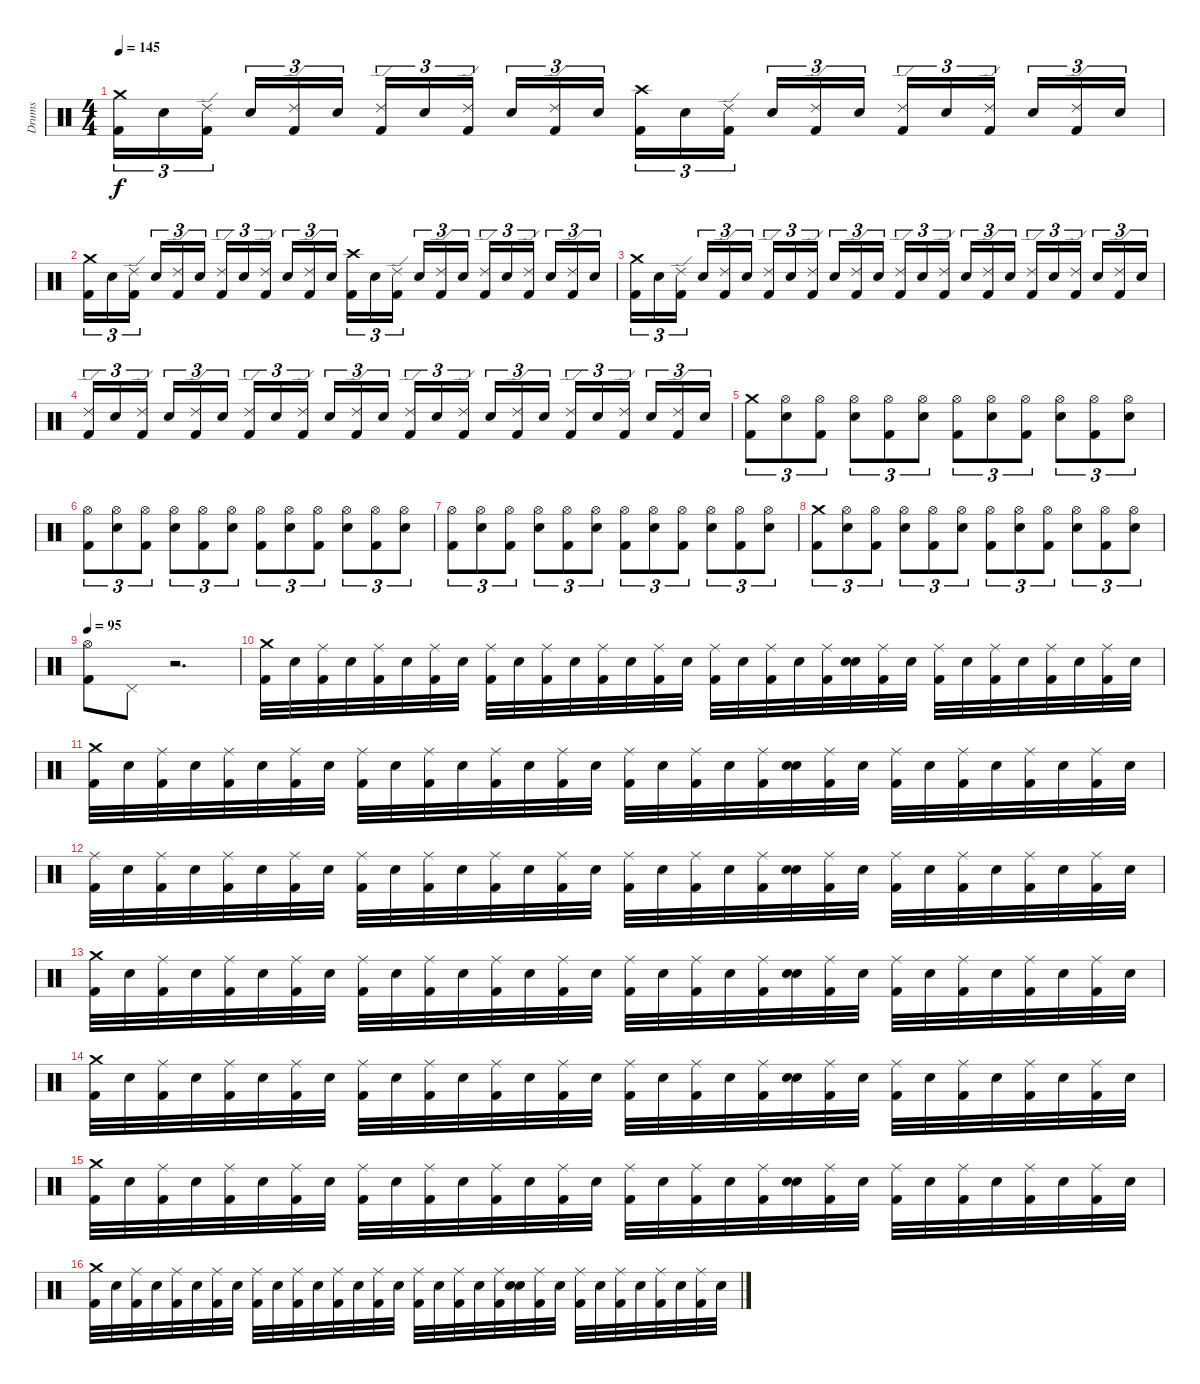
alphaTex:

\track ("Drums" "Drums") {instrument percussion}
\staff {score}
\articulation defaults
\ts (4 4)
\tempo 145
\clef neutral
\ks c
("Kick (hit) 2" "Crash medium (hit)").16{tu (3 2) dy f} "Snare (hit) 2".16{tu (3 2)} ("Kick (hit) 2" "Ride (edge) 2").16{tu (3 2)} "Snare (hit) 2".16{tu (3 2)} ("Kick (hit) 2" "Ride (edge) 2").16{tu (3 2)} "Snare (hit) 2".16{tu (3 2)} ("Kick (hit) 2" "Ride (edge) 2").16{tu (3 2)} "Snare (hit) 2".16{tu (3 2)} ("Kick (hit) 2" "Ride (edge) 2").16{tu (3 2)} "Snare (hit) 2".16{tu (3 2)} ("Kick (hit) 2" "Ride (edge) 2").16{tu (3 2)} "Snare (hit) 2".16{tu (3 2)} ("Kick (hit) 2" "Crash high (hit)").16{tu (3 2)} "Snare (hit) 2".16{tu (3 2)} ("Kick (hit) 2" "Ride (edge) 2").16{tu (3 2)} "Snare (hit) 2".16{tu (3 2)} ("Kick (hit) 2" "Ride (edge) 2").16{tu (3 2)} "Snare (hit) 2".16{tu (3 2)} ("Kick (hit) 2" "Ride (edge) 2").16{tu (3 2)} "Snare (hit) 2".16{tu (3 2)} ("Kick (hit) 2" "Ride (edge) 2").16{tu (3 2)} "Snare (hit) 2".16{tu (3 2)} ("Kick (hit) 2" "Ride (edge) 2").16{tu (3 2)} "Snare (hit) 2".16{tu (3 2)} |
("Kick (hit) 2" "Crash medium (hit)").16{tu (3 2)} "Snare (hit) 2".16{tu (3 2)} ("Kick (hit) 2" "Ride (edge) 2").16{tu (3 2)} "Snare (hit) 2".16{tu (3 2)} ("Kick (hit) 2" "Ride (edge) 2").16{tu (3 2)} "Snare (hit) 2".16{tu (3 2)} ("Kick (hit) 2" "Ride (edge) 2").16{tu (3 2)} "Snare (hit) 2".16{tu (3 2)} ("Kick (hit) 2" "Ride (edge) 2").16{tu (3 2)} "Snare (hit) 2".16{tu (3 2)} ("Kick (hit) 2" "Ride (edge) 2").16{tu (3 2)} "Snare (hit) 2".16{tu (3 2)} ("Kick (hit) 2" "Crash high (hit)").16{tu (3 2)} "Snare (hit) 2".16{tu (3 2)} ("Kick (hit) 2" "Ride (edge) 2").16{tu (3 2)} "Snare (hit) 2".16{tu (3 2)} ("Kick (hit) 2" "Ride (edge) 2").16{tu (3 2)} "Snare (hit) 2".16{tu (3 2)} ("Kick (hit) 2" "Ride (edge) 2").16{tu (3 2)} "Snare (hit) 2".16{tu (3 2)} ("Kick (hit) 2" "Ride (edge) 2").16{tu (3 2)} "Snare (hit) 2".16{tu (3 2)} ("Kick (hit) 2" "Ride (edge) 2").16{tu (3 2)} "Snare (hit) 2".16{tu (3 2)} |
("Kick (hit) 2" "Crash medium (hit)").16{tu (3 2)} "Snare (hit) 2".16{tu (3 2)} ("Kick (hit) 2" "Ride (edge) 2").16{tu (3 2)} "Snare (hit) 2".16{tu (3 2)} ("Kick (hit) 2" "Ride (edge) 2").16{tu (3 2)} "Snare (hit) 2".16{tu (3 2)} ("Kick (hit) 2" "Ride (edge) 2").16{tu (3 2)} "Snare (hit) 2".16{tu (3 2)} ("Kick (hit) 2" "Ride (edge) 2").16{tu (3 2)} "Snare (hit) 2".16{tu (3 2)} ("Kick (hit) 2" "Ride (edge) 2").16{tu (3 2)} "Snare (hit) 2".16{tu (3 2)} ("Kick (hit) 2" "Ride (edge) 2").16{tu (3 2)} "Snare (hit) 2".16{tu (3 2)} ("Kick (hit) 2" "Ride (edge) 2").16{tu (3 2)} "Snare (hit) 2".16{tu (3 2)} ("Kick (hit) 2" "Ride (edge) 2").16{tu (3 2)} "Snare (hit) 2".16{tu (3 2)} ("Kick (hit) 2" "Ride (edge) 2").16{tu (3 2)} "Snare (hit) 2".16{tu (3 2)} ("Kick (hit) 2" "Ride (edge) 2").16{tu (3 2)} "Snare (hit) 2".16{tu (3 2)} ("Kick (hit) 2" "Ride (edge) 2").16{tu (3 2)} "Snare (hit) 2".16{tu (3 2)} |
("Kick (hit) 2" "Ride (edge) 2").16{tu (3 2)} "Snare (hit) 2".16{tu (3 2)} ("Kick (hit) 2" "Ride (edge) 2").16{tu (3 2)} "Snare (hit) 2".16{tu (3 2)} ("Kick (hit) 2" "Ride (edge) 2").16{tu (3 2)} "Snare (hit) 2".16{tu (3 2)} ("Kick (hit) 2" "Ride (edge) 2").16{tu (3 2)} "Snare (hit) 2".16{tu (3 2)} ("Kick (hit) 2" "Ride (edge) 2").16{tu (3 2)} "Snare (hit) 2".16{tu (3 2)} ("Kick (hit) 2" "Ride (edge) 2").16{tu (3 2)} "Snare (hit) 2".16{tu (3 2)} ("Kick (hit) 2" "Ride (edge) 2").16{tu (3 2)} "Snare (hit) 2".16{tu (3 2)} ("Kick (hit) 2" "Ride (edge) 2").16{tu (3 2)} "Snare (hit) 2".16{tu (3 2)} ("Kick (hit) 2" "Ride (edge) 2").16{tu (3 2)} "Snare (hit) 2".16{tu (3 2)} ("Kick (hit) 2" "Ride (edge) 2").16{tu (3 2)} "Snare (hit) 2".16{tu (3 2)} ("Kick (hit) 2" "Ride (edge) 2").16{tu (3 2)} "Snare (hit) 2".16{tu (3 2)} ("Kick (hit) 2" "Ride (edge) 2").16{tu (3 2)} "Snare (hit) 2".16{tu (3 2)} |
("Kick (hit) 2" "Crash medium (hit)").8{tu (3 2)} ("Snare (hit) 2" "Hi-Hat (open)").8{tu (3 2)} ("Kick (hit) 2" "Hi-Hat (open)").8{tu (3 2)} ("Snare (hit) 2" "Hi-Hat (open)").8{tu (3 2)} ("Kick (hit) 2" "Hi-Hat (open)").8{tu (3 2)} ("Snare (hit) 2" "Hi-Hat (open)").8{tu (3 2)} ("Kick (hit) 2" "Hi-Hat (open)").8{tu (3 2)} ("Snare (hit) 2" "Hi-Hat (open)").8{tu (3 2)} ("Kick (hit) 2" "Hi-Hat (open)").8{tu (3 2)} ("Snare (hit) 2" "Hi-Hat (open)").8{tu (3 2)} ("Kick (hit) 2" "Hi-Hat (open)").8{tu (3 2)} ("Snare (hit) 2" "Hi-Hat (open)").8{tu (3 2)} |
("Kick (hit) 2" "Hi-Hat (open)").8{tu (3 2)} ("Snare (hit) 2" "Hi-Hat (open)").8{tu (3 2)} ("Kick (hit) 2" "Hi-Hat (open)").8{tu (3 2)} ("Snare (hit) 2" "Hi-Hat (open)").8{tu (3 2)} ("Kick (hit) 2" "Hi-Hat (open)").8{tu (3 2)} ("Snare (hit) 2" "Hi-Hat (open)").8{tu (3 2)} ("Kick (hit) 2" "Hi-Hat (open)").8{tu (3 2)} ("Snare (hit) 2" "Hi-Hat (open)").8{tu (3 2)} ("Kick (hit) 2" "Hi-Hat (open)").8{tu (3 2)} ("Snare (hit) 2" "Hi-Hat (open)").8{tu (3 2)} ("Kick (hit) 2" "Hi-Hat (open)").8{tu (3 2)} ("Snare (hit) 2" "Hi-Hat (open)").8{tu (3 2)} |
("Kick (hit) 2" "Hi-Hat (open)").8{tu (3 2)} ("Snare (hit) 2" "Hi-Hat (open)").8{tu (3 2)} ("Kick (hit) 2" "Hi-Hat (open)").8{tu (3 2)} ("Snare (hit) 2" "Hi-Hat (open)").8{tu (3 2)} ("Kick (hit) 2" "Hi-Hat (open)").8{tu (3 2)} ("Snare (hit) 2" "Hi-Hat (open)").8{tu (3 2)} ("Kick (hit) 2" "Hi-Hat (open)").8{tu (3 2)} ("Snare (hit) 2" "Hi-Hat (open)").8{tu (3 2)} ("Kick (hit) 2" "Hi-Hat (open)").8{tu (3 2)} ("Snare (hit) 2" "Hi-Hat (open)").8{tu (3 2)} ("Kick (hit) 2" "Hi-Hat (open)").8{tu (3 2)} ("Snare (hit) 2" "Hi-Hat (open)").8{tu (3 2)} |
("Kick (hit) 2" "Crash medium (hit)").8{tu (3 2)} ("Snare (hit) 2" "Hi-Hat (open)").8{tu (3 2)} ("Kick (hit) 2" "Hi-Hat (open)").8{tu (3 2)} ("Snare (hit) 2" "Hi-Hat (open)").8{tu (3 2)} ("Kick (hit) 2" "Hi-Hat (open)").8{tu (3 2)} ("Snare (hit) 2" "Hi-Hat (open)").8{tu (3 2)} ("Kick (hit) 2" "Hi-Hat (open)").8{tu (3 2)} ("Snare (hit) 2" "Hi-Hat (open)").8{tu (3 2)} ("Kick (hit) 2" "Hi-Hat (open)").8{tu (3 2)} ("Snare (hit) 2" "Hi-Hat (open)").8{tu (3 2)} ("Kick (hit) 2" "Hi-Hat (open)").8{tu (3 2)} ("Snare (hit) 2" "Hi-Hat (open)").8{tu (3 2)} |
\tempo 95
("Kick (hit) 2" "Hi-Hat (open)").8 "Pedal Hi-Hat (hit)".8 r.2{d} |
("Kick (hit) 2" "Crash medium (hit)").32 "Snare (hit) 2".32 ("Kick (hit) 2" "Ride (middle)").32 "Snare (hit) 2".32 ("Kick (hit) 2" "Ride (middle)").32 "Snare (hit) 2".32 ("Kick (hit) 2" "Ride (middle)").32 "Snare (hit) 2".32 ("Kick (hit) 2" "Ride (middle)").32 "Snare (hit) 2".32 ("Kick (hit) 2" "Ride (middle)").32 "Snare (hit) 2".32 ("Kick (hit) 2" "Ride (middle)").32 "Snare (hit) 2".32 ("Kick (hit) 2" "Ride (middle)").32 "Snare (hit) 2".32 ("Kick (hit) 2" "Ride (middle)").32 "Snare (hit) 2".32 ("Kick (hit) 2" "Ride (middle)").32 "Snare (hit) 2".32 ("Kick (hit) 2" "Ride (middle)").32 ("Snare (hit) 2" "Snare (hit)").32 ("Kick (hit) 2" "Ride (middle)").32 "Snare (hit) 2".32 ("Kick (hit) 2" "Ride (middle)").32 "Snare (hit) 2".32 ("Kick (hit) 2" "Ride (middle)").32 "Snare (hit) 2".32 ("Kick (hit) 2" "Ride (middle)").32 "Snare (hit) 2".32 ("Kick (hit) 2" "Ride (middle)").32 "Snare (hit) 2".32 |
("Kick (hit) 2" "Crash medium (hit)").32 "Snare (hit) 2".32 ("Kick (hit) 2" "Ride (middle)").32 "Snare (hit) 2".32 ("Kick (hit) 2" "Ride (middle)").32 "Snare (hit) 2".32 ("Kick (hit) 2" "Ride (middle)").32 "Snare (hit) 2".32 ("Kick (hit) 2" "Ride (middle)").32 "Snare (hit) 2".32 ("Kick (hit) 2" "Ride (middle)").32 "Snare (hit) 2".32 ("Kick (hit) 2" "Ride (middle)").32 "Snare (hit) 2".32 ("Kick (hit) 2" "Ride (middle)").32 "Snare (hit) 2".32 ("Kick (hit) 2" "Ride (middle)").32 "Snare (hit) 2".32 ("Kick (hit) 2" "Ride (middle)").32 "Snare (hit) 2".32 ("Kick (hit) 2" "Ride (middle)").32 ("Snare (hit) 2" "Snare (hit)").32 ("Kick (hit) 2" "Ride (middle)").32 "Snare (hit) 2".32 ("Kick (hit) 2" "Ride (middle)").32 "Snare (hit) 2".32 ("Kick (hit) 2" "Ride (middle)").32 "Snare (hit) 2".32 ("Kick (hit) 2" "Ride (middle)").32 "Snare (hit) 2".32 ("Kick (hit) 2" "Ride (middle)").32 "Snare (hit) 2".32 |
("Kick (hit) 2" "Ride (middle)").32 "Snare (hit) 2".32 ("Kick (hit) 2" "Ride (middle)").32 "Snare (hit) 2".32 ("Kick (hit) 2" "Ride (middle)").32 "Snare (hit) 2".32 ("Kick (hit) 2" "Ride (middle)").32 "Snare (hit) 2".32 ("Kick (hit) 2" "Ride (middle)").32 "Snare (hit) 2".32 ("Kick (hit) 2" "Ride (middle)").32 "Snare (hit) 2".32 ("Kick (hit) 2" "Ride (middle)").32 "Snare (hit) 2".32 ("Kick (hit) 2" "Ride (middle)").32 "Snare (hit) 2".32 ("Kick (hit) 2" "Ride (middle)").32 "Snare (hit) 2".32 ("Kick (hit) 2" "Ride (middle)").32 "Snare (hit) 2".32 ("Kick (hit) 2" "Ride (middle)").32 ("Snare (hit) 2" "Snare (hit)").32 ("Kick (hit) 2" "Ride (middle)").32 "Snare (hit) 2".32 ("Kick (hit) 2" "Ride (middle)").32 "Snare (hit) 2".32 ("Kick (hit) 2" "Ride (middle)").32 "Snare (hit) 2".32 ("Kick (hit) 2" "Ride (middle)").32 "Snare (hit) 2".32 ("Kick (hit) 2" "Ride (middle)").32 "Snare (hit) 2".32 |
("Kick (hit) 2" "Crash medium (hit)").32 "Snare (hit) 2".32 ("Kick (hit) 2" "Ride (middle)").32 "Snare (hit) 2".32 ("Kick (hit) 2" "Ride (middle)").32 "Snare (hit) 2".32 ("Kick (hit) 2" "Ride (middle)").32 "Snare (hit) 2".32 ("Kick (hit) 2" "Ride (middle)").32 "Snare (hit) 2".32 ("Kick (hit) 2" "Ride (middle)").32 "Snare (hit) 2".32 ("Kick (hit) 2" "Ride (middle)").32 "Snare (hit) 2".32 ("Kick (hit) 2" "Ride (middle)").32 "Snare (hit) 2".32 ("Kick (hit) 2" "Ride (middle)").32 "Snare (hit) 2".32 ("Kick (hit) 2" "Ride (middle)").32 "Snare (hit) 2".32 ("Kick (hit) 2" "Ride (middle)").32 ("Snare (hit) 2" "Snare (hit)").32 ("Kick (hit) 2" "Ride (middle)").32 "Snare (hit) 2".32 ("Kick (hit) 2" "Ride (middle)").32 "Snare (hit) 2".32 ("Kick (hit) 2" "Ride (middle)").32 "Snare (hit) 2".32 ("Kick (hit) 2" "Ride (middle)").32 "Snare (hit) 2".32 ("Kick (hit) 2" "Ride (middle)").32 "Snare (hit) 2".32 |
("Kick (hit) 2" "Crash medium (hit)").32 "Snare (hit) 2".32 ("Kick (hit) 2" "Ride (middle)").32 "Snare (hit) 2".32 ("Kick (hit) 2" "Ride (middle)").32 "Snare (hit) 2".32 ("Kick (hit) 2" "Ride (middle)").32 "Snare (hit) 2".32 ("Kick (hit) 2" "Ride (middle)").32 "Snare (hit) 2".32 ("Kick (hit) 2" "Ride (middle)").32 "Snare (hit) 2".32 ("Kick (hit) 2" "Ride (middle)").32 "Snare (hit) 2".32 ("Kick (hit) 2" "Ride (middle)").32 "Snare (hit) 2".32 ("Kick (hit) 2" "Ride (middle)").32 "Snare (hit) 2".32 ("Kick (hit) 2" "Ride (middle)").32 "Snare (hit) 2".32 ("Kick (hit) 2" "Ride (middle)").32 ("Snare (hit) 2" "Snare (hit)").32 ("Kick (hit) 2" "Ride (middle)").32 "Snare (hit) 2".32 ("Kick (hit) 2" "Ride (middle)").32 "Snare (hit) 2".32 ("Kick (hit) 2" "Ride (middle)").32 "Snare (hit) 2".32 ("Kick (hit) 2" "Ride (middle)").32 "Snare (hit) 2".32 ("Kick (hit) 2" "Ride (middle)").32 "Snare (hit) 2".32 |
("Kick (hit) 2" "Crash medium (hit)").32 "Snare (hit) 2".32 ("Kick (hit) 2" "Ride (middle)").32 "Snare (hit) 2".32 ("Kick (hit) 2" "Ride (middle)").32 "Snare (hit) 2".32 ("Kick (hit) 2" "Ride (middle)").32 "Snare (hit) 2".32 ("Kick (hit) 2" "Ride (middle)").32 "Snare (hit) 2".32 ("Kick (hit) 2" "Ride (middle)").32 "Snare (hit) 2".32 ("Kick (hit) 2" "Ride (middle)").32 "Snare (hit) 2".32 ("Kick (hit) 2" "Ride (middle)").32 "Snare (hit) 2".32 ("Kick (hit) 2" "Ride (middle)").32 "Snare (hit) 2".32 ("Kick (hit) 2" "Ride (middle)").32 "Snare (hit) 2".32 ("Kick (hit) 2" "Ride (middle)").32 ("Snare (hit) 2" "Snare (hit)").32 ("Kick (hit) 2" "Ride (middle)").32 "Snare (hit) 2".32 ("Kick (hit) 2" "Ride (middle)").32 "Snare (hit) 2".32 ("Kick (hit) 2" "Ride (middle)").32 "Snare (hit) 2".32 ("Kick (hit) 2" "Ride (middle)").32 "Snare (hit) 2".32 ("Kick (hit) 2" "Ride (middle)").32 "Snare (hit) 2".32 |
("Kick (hit) 2" "Crash medium (hit)").32 "Snare (hit) 2".32 ("Kick (hit) 2" "Ride (middle)").32 "Snare (hit) 2".32 ("Kick (hit) 2" "Ride (middle)").32 "Snare (hit) 2".32 ("Kick (hit) 2" "Ride (middle)").32 "Snare (hit) 2".32 ("Kick (hit) 2" "Ride (middle)").32 "Snare (hit) 2".32 ("Kick (hit) 2" "Ride (middle)").32 "Snare (hit) 2".32 ("Kick (hit) 2" "Ride (middle)").32 "Snare (hit) 2".32 ("Kick (hit) 2" "Ride (middle)").32 "Snare (hit) 2".32 ("Kick (hit) 2" "Ride (middle)").32 "Snare (hit) 2".32 ("Kick (hit) 2" "Ride (middle)").32 "Snare (hit) 2".32 ("Kick (hit) 2" "Ride (middle)").32 ("Snare (hit) 2" "Snare (hit)").32 ("Kick (hit) 2" "Ride (middle)").32 "Snare (hit) 2".32 ("Kick (hit) 2" "Ride (middle)").32 "Snare (hit) 2".32 ("Kick (hit) 2" "Ride (middle)").32 "Snare (hit) 2".32 ("Kick (hit) 2" "Ride (middle)").32 "Snare (hit) 2".32 ("Kick (hit) 2" "Ride (middle)").32 "Snare (hit) 2".32
